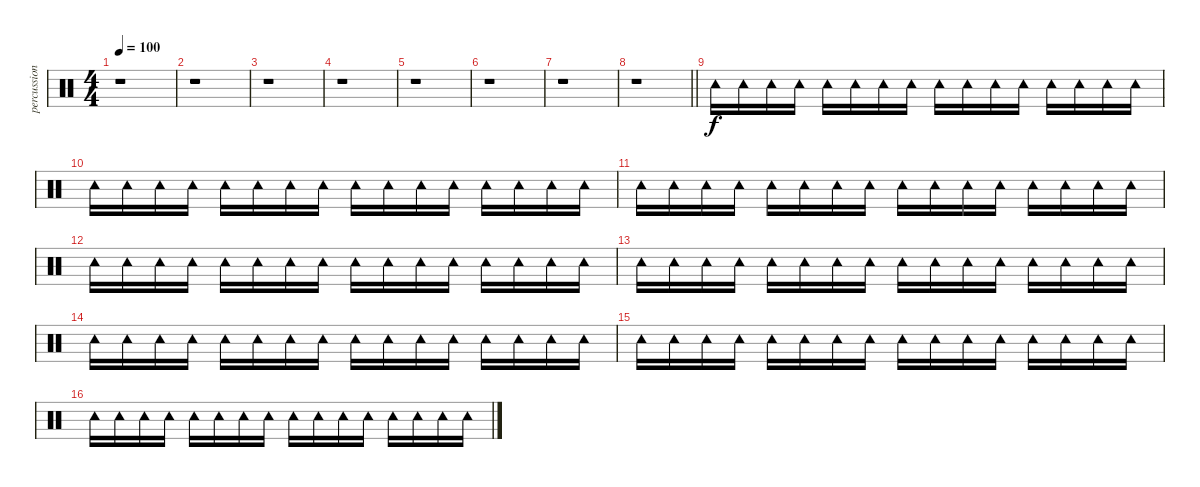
\track ("percussion" "percussion") {instrument percussion}
\staff {score}
\articulation defaults
\ts (4 4)
\tempo 100
\clef neutral
\ks c
r.1{dy f} |
r.1 |
r.1 |
r.1 |
r.1 |
r.1 |
r.1 |
\barLineRight lightlight
r.1 |
"Tambourine (hit)".16 "Tambourine (hit)".16 "Tambourine (hit)".16 "Tambourine (hit)".16 "Tambourine (hit)".16 "Tambourine (hit)".16 "Tambourine (hit)".16 "Tambourine (hit)".16 "Tambourine (hit)".16 "Tambourine (hit)".16 "Tambourine (hit)".16 "Tambourine (hit)".16 "Tambourine (hit)".16 "Tambourine (hit)".16 "Tambourine (hit)".16 "Tambourine (hit)".16 |
"Tambourine (hit)".16 "Tambourine (hit)".16 "Tambourine (hit)".16 "Tambourine (hit)".16 "Tambourine (hit)".16 "Tambourine (hit)".16 "Tambourine (hit)".16 "Tambourine (hit)".16 "Tambourine (hit)".16 "Tambourine (hit)".16 "Tambourine (hit)".16 "Tambourine (hit)".16 "Tambourine (hit)".16 "Tambourine (hit)".16 "Tambourine (hit)".16 "Tambourine (hit)".16 |
"Tambourine (hit)".16 "Tambourine (hit)".16 "Tambourine (hit)".16 "Tambourine (hit)".16 "Tambourine (hit)".16 "Tambourine (hit)".16 "Tambourine (hit)".16 "Tambourine (hit)".16 "Tambourine (hit)".16 "Tambourine (hit)".16 "Tambourine (hit)".16 "Tambourine (hit)".16 "Tambourine (hit)".16 "Tambourine (hit)".16 "Tambourine (hit)".16 "Tambourine (hit)".16 |
"Tambourine (hit)".16 "Tambourine (hit)".16 "Tambourine (hit)".16 "Tambourine (hit)".16 "Tambourine (hit)".16 "Tambourine (hit)".16 "Tambourine (hit)".16 "Tambourine (hit)".16 "Tambourine (hit)".16 "Tambourine (hit)".16 "Tambourine (hit)".16 "Tambourine (hit)".16 "Tambourine (hit)".16 "Tambourine (hit)".16 "Tambourine (hit)".16 "Tambourine (hit)".16 |
"Tambourine (hit)".16 "Tambourine (hit)".16 "Tambourine (hit)".16 "Tambourine (hit)".16 "Tambourine (hit)".16 "Tambourine (hit)".16 "Tambourine (hit)".16 "Tambourine (hit)".16 "Tambourine (hit)".16 "Tambourine (hit)".16 "Tambourine (hit)".16 "Tambourine (hit)".16 "Tambourine (hit)".16 "Tambourine (hit)".16 "Tambourine (hit)".16 "Tambourine (hit)".16 |
"Tambourine (hit)".16 "Tambourine (hit)".16 "Tambourine (hit)".16 "Tambourine (hit)".16 "Tambourine (hit)".16 "Tambourine (hit)".16 "Tambourine (hit)".16 "Tambourine (hit)".16 "Tambourine (hit)".16 "Tambourine (hit)".16 "Tambourine (hit)".16 "Tambourine (hit)".16 "Tambourine (hit)".16 "Tambourine (hit)".16 "Tambourine (hit)".16 "Tambourine (hit)".16 |
"Tambourine (hit)".16 "Tambourine (hit)".16 "Tambourine (hit)".16 "Tambourine (hit)".16 "Tambourine (hit)".16 "Tambourine (hit)".16 "Tambourine (hit)".16 "Tambourine (hit)".16 "Tambourine (hit)".16 "Tambourine (hit)".16 "Tambourine (hit)".16 "Tambourine (hit)".16 "Tambourine (hit)".16 "Tambourine (hit)".16 "Tambourine (hit)".16 "Tambourine (hit)".16 |
"Tambourine (hit)".16 "Tambourine (hit)".16 "Tambourine (hit)".16 "Tambourine (hit)".16 "Tambourine (hit)".16 "Tambourine (hit)".16 "Tambourine (hit)".16 "Tambourine (hit)".16 "Tambourine (hit)".16 "Tambourine (hit)".16 "Tambourine (hit)".16 "Tambourine (hit)".16 "Tambourine (hit)".16 "Tambourine (hit)".16 "Tambourine (hit)".16 "Tambourine (hit)".16
